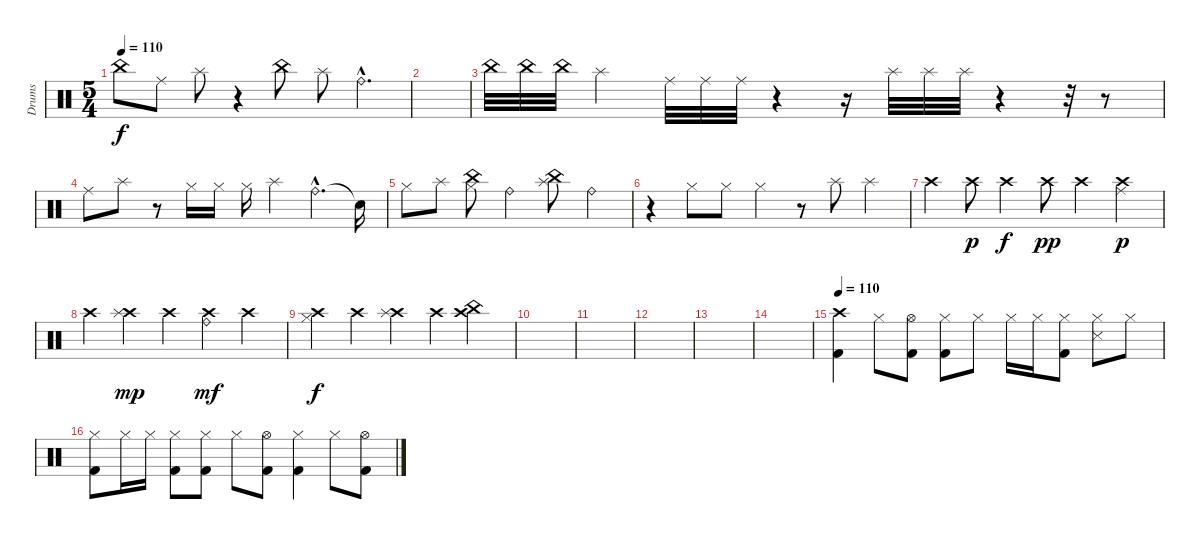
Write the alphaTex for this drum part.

\track ("Drums" "Drums") {instrument percussion}
\staff {score}
\articulation defaults
\ts (5 4)
\tempo 110
\clef neutral
\ks c "China (hit)".8{dy f} "Ride (middle)".8 "Splash (hit)".8
r.4 "China (hit)".8 "Splash (hit)".8 "Ride (bell)"{hac}.4{d} |
|
"China (hit)".32 "China (hit)".32 "China (hit)".32 "Splash (hit)".4 "Ride (middle)".32 "Ride (middle)".32 "Ride (middle)".32 r.4 r.16 "Splash (hit)".32 "Splash (hit)".32 "Splash (hit)".32 r.4 r.32 r.8 |
"Ride (middle)".8 "Splash (hit)".8 r.8 "Hi-Hat (closed)".16 "Hi-Hat (closed)".16 "Hi-Hat (closed)".16 "Splash (hit)".4 "Ride (bell)"{hac}.4{d} "Snare (hit)"{t}.16 |
"Hi-Hat (closed)".8 "Splash (hit)".8 ("Hi-Hat (closed)" "China (hit)").8 "Ride (bell)".2 ("Splash (hit)" "China (hit)").8 "Ride (bell)".4 |
r.4 "Hi-Hat (closed)".8 "Hi-Hat (closed)".8 "Hi-Hat (closed)".4 r.8 "Splash (hit)".8 "Splash (hit)".4 |
"Crash high (hit)".4 "Crash high (hit)".8{dy p} "Crash high (hit)".4{dy f} "Crash high (hit)".8{dy pp} "Crash high (hit)".4 ("Crash high (hit)" "Ride (middle)").4{dy p} |
"Crash high (hit)".4 ("Crash high (hit)" "Splash (hit)").4{dy mp} "Crash high (hit)".4 ("Crash high (hit)" "Ride (bell)").4{dy mf} "Crash high (hit)".4 |
("Crash high (hit)" "Hi-Hat (closed)").4{dy f} "Crash high (hit)".4 ("Crash high (hit)" "Splash (hit)").4 "Crash high (hit)".4 ("Crash high (hit)" "China (hit)").4 |
|
|
|
|
|
\tempo 110
("Crash high (hit)" "Kick (hit) 2").4{volume 14} "Hi-Hat (closed)".8 ("Hi-Hat (open)" "Kick (hit) 2").8 ("Hi-Hat (closed)" "Kick (hit) 2").8 "Hi-Hat (closed)".8 "Hi-Hat (closed)".16 "Hi-Hat (closed)".16 ("Hi-Hat (closed)" "Kick (hit) 2").8 ("Hi-Hat (closed)" "Snare (side stick) 3").8 "Hi-Hat (closed)".8 |
("Hi-Hat (closed)" "Kick (hit) 2").8 "Hi-Hat (closed)".16 "Hi-Hat (closed)".16 ("Hi-Hat (closed)" "Kick (hit) 2").8 ("Hi-Hat (closed)" "Kick (hit) 2").8 "Hi-Hat (closed)".8 ("Hi-Hat (open)" "Kick (hit) 2").8 ("Hi-Hat (closed)" "Kick (hit) 2").4 "Hi-Hat (closed)".8 ("Hi-Hat (open)" "Kick (hit) 2").8
